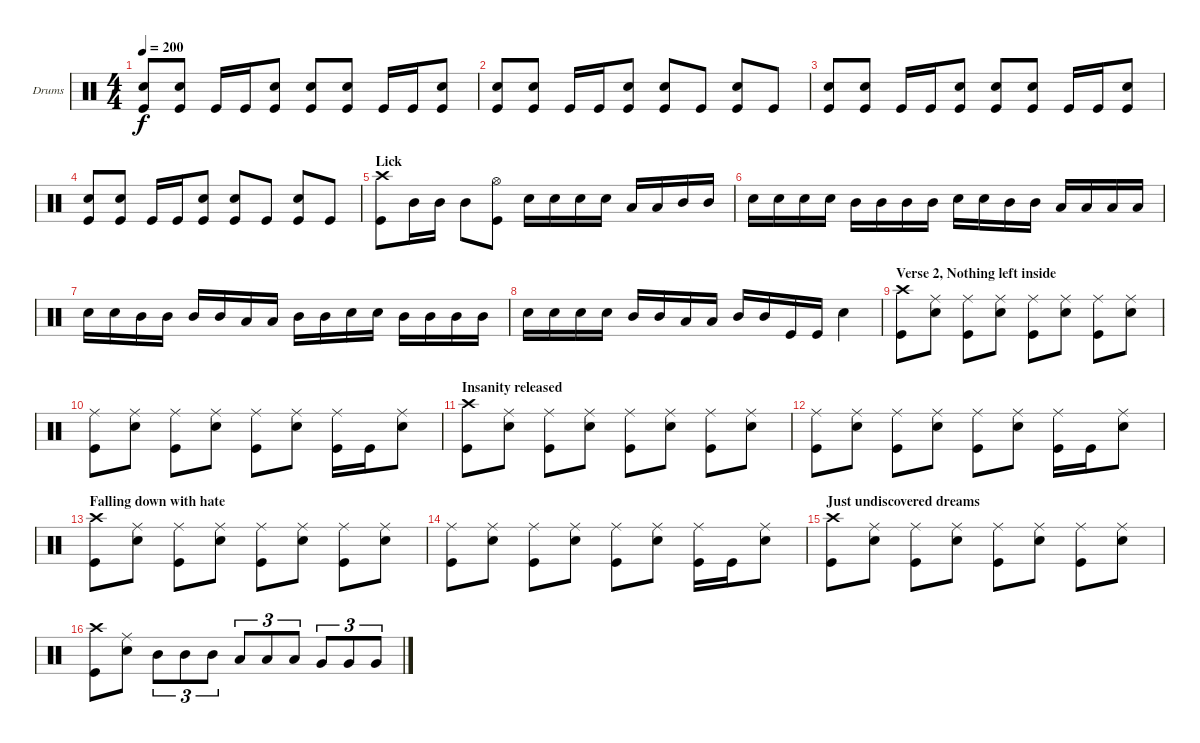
\defaultSystemsLayout 4
\bracketExtendMode groupsimilarinstruments
\firstSystemTrackNameOrientation horizontal
\otherSystemsTrackNameOrientation horizontal
\track ("Markus Freiwald" "Drums") {instrument percussion}
\staff {score}
\articulation defaults
\ts (4 4)
\tempo 200
\clef neutral
\ks c
("Snare (hit) 2" "Kick (hit)").8{dy f} ("Snare (hit) 2" "Kick (hit)").8 "Kick (hit)".16 "Kick (hit)".16 ("Snare (hit) 2" "Kick (hit)").8 ("Snare (hit) 2" "Kick (hit)").8 ("Snare (hit) 2" "Kick (hit)").8 "Kick (hit)".16 "Kick (hit)".16 ("Snare (hit) 2" "Kick (hit)").8 |
("Snare (hit) 2" "Kick (hit)").8 ("Snare (hit) 2" "Kick (hit)").8 "Kick (hit)".16 "Kick (hit)".16 ("Snare (hit) 2" "Kick (hit)").8 ("Snare (hit) 2" "Kick (hit)").8 "Kick (hit)".8 ("Snare (hit) 2" "Kick (hit)").8 "Kick (hit)".8 |
("Snare (hit) 2" "Kick (hit)").8 ("Snare (hit) 2" "Kick (hit)").8 "Kick (hit)".16 "Kick (hit)".16 ("Snare (hit) 2" "Kick (hit)").8 ("Snare (hit) 2" "Kick (hit)").8 ("Snare (hit) 2" "Kick (hit)").8 "Kick (hit)".16 "Kick (hit)".16 ("Snare (hit) 2" "Kick (hit)").8 |
("Snare (hit) 2" "Kick (hit)").8 ("Snare (hit) 2" "Kick (hit)").8 "Kick (hit)".16 "Kick (hit)".16 ("Snare (hit) 2" "Kick (hit)").8 ("Snare (hit) 2" "Kick (hit)").8 "Kick (hit)".8 ("Snare (hit) 2" "Kick (hit)").8 "Kick (hit)".8 |
\section ("" "Lick")
("Kick (hit)" "Crash high (hit)").8 "Mid Tom (hit)".16 "Mid Tom (hit)".16 "Mid Tom (hit)".8 ("Kick (hit)" "Hi-Hat (open)").8 "Snare (hit) 2".16 "Snare (hit) 2".16 "Snare (hit) 2".16 "Snare (hit) 2".16 "Low Tom (hit)".16 "Low Tom (hit)".16 "Mid Tom (hit)".16 "Mid Tom (hit)".16 |
"Snare (hit) 2".16 "Snare (hit) 2".16 "Snare (hit) 2".16 "Snare (hit) 2".16 "Mid Tom (hit)".16 "Mid Tom (hit)".16 "Mid Tom (hit)".16 "Mid Tom (hit)".16 "Snare (hit) 2".16 "Snare (hit) 2".16 "Mid Tom (hit)".16 "Mid Tom (hit)".16 "Low Tom (hit)".16 "Low Tom (hit)".16 "Low Tom (hit)".16 "Low Tom (hit)".16 |
"Snare (hit) 2".16 "Snare (hit) 2".16 "Mid Tom (hit)".16 "Mid Tom (hit)".16 "Mid Tom (hit)".16 "Mid Tom (hit)".16 "Low Tom (hit)".16 "Low Tom (hit)".16 "Mid Tom (hit)".16 "Mid Tom (hit)".16 "Snare (hit) 2".16 "Snare (hit) 2".16 "Mid Tom (hit)".16 "Mid Tom (hit)".16 "Mid Tom (hit)".16 "Mid Tom (hit)".16 |
"Snare (hit) 2".16 "Snare (hit) 2".16 "Snare (hit) 2".16 "Snare (hit) 2".16 "Mid Tom (hit)".16 "Mid Tom (hit)".16 "Low Tom (hit)".16 "Low Tom (hit)".16 "Mid Tom (hit)".16 "Mid Tom (hit)".16 "Kick (hit)".16 "Kick (hit)".16 "Snare (hit) 2".4 |
\section ("" "Verse 2, Nothing left inside")
("Crash high (hit)" "Kick (hit)").8 ("Snare (hit) 2" "Ride (middle)").8 ("Ride (middle)" "Kick (hit)").8 ("Snare (hit) 2" "Ride (middle)").8 ("Ride (middle)" "Kick (hit)").8 ("Snare (hit) 2" "Ride (middle)").8 ("Ride (middle)" "Kick (hit)").8 ("Snare (hit) 2" "Ride (middle)").8 |
("Ride (middle)" "Kick (hit)").8 ("Snare (hit) 2" "Ride (middle)").8 ("Ride (middle)" "Kick (hit)").8 ("Snare (hit) 2" "Ride (middle)").8 ("Ride (middle)" "Kick (hit)").8 ("Snare (hit) 2" "Ride (middle)").8 ("Ride (middle)" "Kick (hit)").16 "Kick (hit)".16 ("Snare (hit) 2" "Ride (middle)").8 |
\section ("" "Insanity released")
("Crash high (hit)" "Kick (hit)").8 ("Snare (hit) 2" "Ride (middle)").8 ("Ride (middle)" "Kick (hit)").8 ("Snare (hit) 2" "Ride (middle)").8 ("Ride (middle)" "Kick (hit)").8 ("Snare (hit) 2" "Ride (middle)").8 ("Ride (middle)" "Kick (hit)").8 ("Snare (hit) 2" "Ride (middle)").8 |
("Ride (middle)" "Kick (hit)").8 ("Snare (hit) 2" "Ride (middle)").8 ("Ride (middle)" "Kick (hit)").8 ("Snare (hit) 2" "Ride (middle)").8 ("Ride (middle)" "Kick (hit)").8 ("Snare (hit) 2" "Ride (middle)").8 ("Ride (middle)" "Kick (hit)").16 "Kick (hit)".16 ("Snare (hit) 2" "Ride (middle)").8 |
\section ("" "Falling down with hate")
("Crash high (hit)" "Kick (hit)").8 ("Snare (hit) 2" "Ride (middle)").8 ("Ride (middle)" "Kick (hit)").8 ("Snare (hit) 2" "Ride (middle)").8 ("Ride (middle)" "Kick (hit)").8 ("Snare (hit) 2" "Ride (middle)").8 ("Ride (middle)" "Kick (hit)").8 ("Snare (hit) 2" "Ride (middle)").8 |
("Ride (middle)" "Kick (hit)").8 ("Snare (hit) 2" "Ride (middle)").8 ("Ride (middle)" "Kick (hit)").8 ("Snare (hit) 2" "Ride (middle)").8 ("Ride (middle)" "Kick (hit)").8 ("Snare (hit) 2" "Ride (middle)").8 ("Ride (middle)" "Kick (hit)").16 "Kick (hit)".16 ("Snare (hit) 2" "Ride (middle)").8 |
\section ("" "Just undiscovered dreams")
("Crash high (hit)" "Kick (hit)").8 ("Snare (hit) 2" "Ride (middle)").8 ("Ride (middle)" "Kick (hit)").8 ("Snare (hit) 2" "Ride (middle)").8 ("Ride (middle)" "Kick (hit)").8 ("Snare (hit) 2" "Ride (middle)").8 ("Ride (middle)" "Kick (hit)").8 ("Snare (hit) 2" "Ride (middle)").8 |
("Crash high (hit)" "Kick (hit)").8 ("Snare (hit) 2" "Ride (middle)").8 "Mid Tom (hit)".8{tu (3 2)} "Mid Tom (hit)".8{tu (3 2)} "Mid Tom (hit)".8{tu (3 2)} "Low Tom (hit)".8{tu (3 2)} "Low Tom (hit)".8{tu (3 2)} "Low Tom (hit)".8{tu (3 2)} "Very Low Tom (hit)".8{tu (3 2)} "Very Low Tom (hit)".8{tu (3 2)} "Very Low Tom (hit)".8{tu (3 2)}
